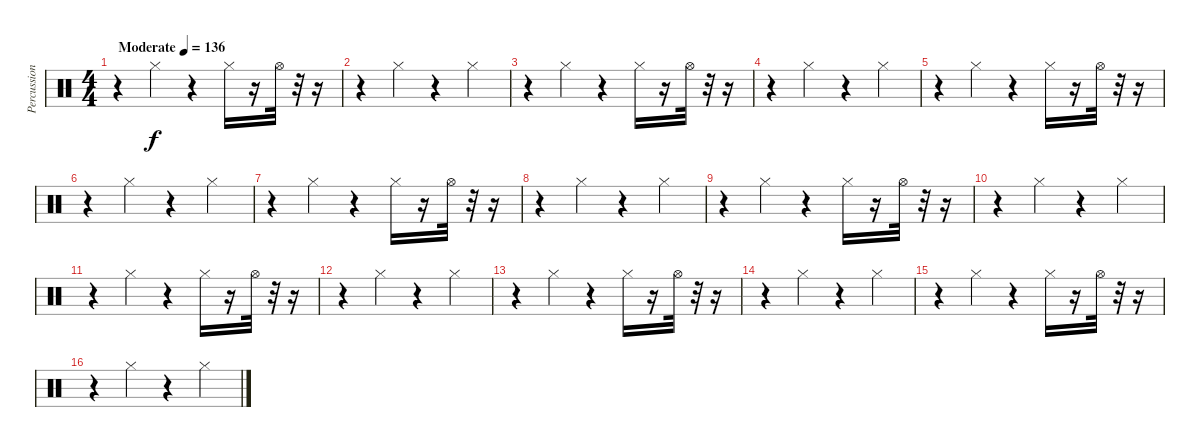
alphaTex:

\track ("Percussion" "Percussion") {instrument percussion}
\staff {score}
\articulation defaults
\ts (4 4)
\tempo (136 "Moderate")
\clef neutral
\ks c
r.4{dy f} "Hi-Hat (closed)".4 r.4 "Hi-Hat (closed)".16 r.16 "Hi-Hat (open)".32 r.32 r.16 |
r.4 "Hi-Hat (closed)".4 r.4 "Hi-Hat (closed)".4 |
r.4 "Hi-Hat (closed)".4 r.4 "Hi-Hat (closed)".16 r.16 "Hi-Hat (open)".32 r.32 r.16 |
r.4 "Hi-Hat (closed)".4 r.4 "Hi-Hat (closed)".4 |
r.4 "Hi-Hat (closed)".4 r.4 "Hi-Hat (closed)".16 r.16 "Hi-Hat (open)".32 r.32 r.16 |
r.4 "Hi-Hat (closed)".4 r.4 "Hi-Hat (closed)".4 |
r.4 "Hi-Hat (closed)".4 r.4 "Hi-Hat (closed)".16 r.16 "Hi-Hat (open)".32 r.32 r.16 |
r.4 "Hi-Hat (closed)".4 r.4 "Hi-Hat (closed)".4 |
r.4 "Hi-Hat (closed)".4 r.4 "Hi-Hat (closed)".16 r.16 "Hi-Hat (open)".32 r.32 r.16 |
r.4 "Hi-Hat (closed)".4 r.4 "Hi-Hat (closed)".4 |
r.4 "Hi-Hat (closed)".4 r.4 "Hi-Hat (closed)".16 r.16 "Hi-Hat (open)".32 r.32 r.16 |
r.4 "Hi-Hat (closed)".4 r.4 "Hi-Hat (closed)".4 |
r.4 "Hi-Hat (closed)".4 r.4 "Hi-Hat (closed)".16 r.16 "Hi-Hat (open)".32 r.32 r.16 |
r.4 "Hi-Hat (closed)".4 r.4 "Hi-Hat (closed)".4 |
r.4 "Hi-Hat (closed)".4 r.4 "Hi-Hat (closed)".16 r.16 "Hi-Hat (open)".32 r.32 r.16 |
r.4 "Hi-Hat (closed)".4 r.4 "Hi-Hat (closed)".4
